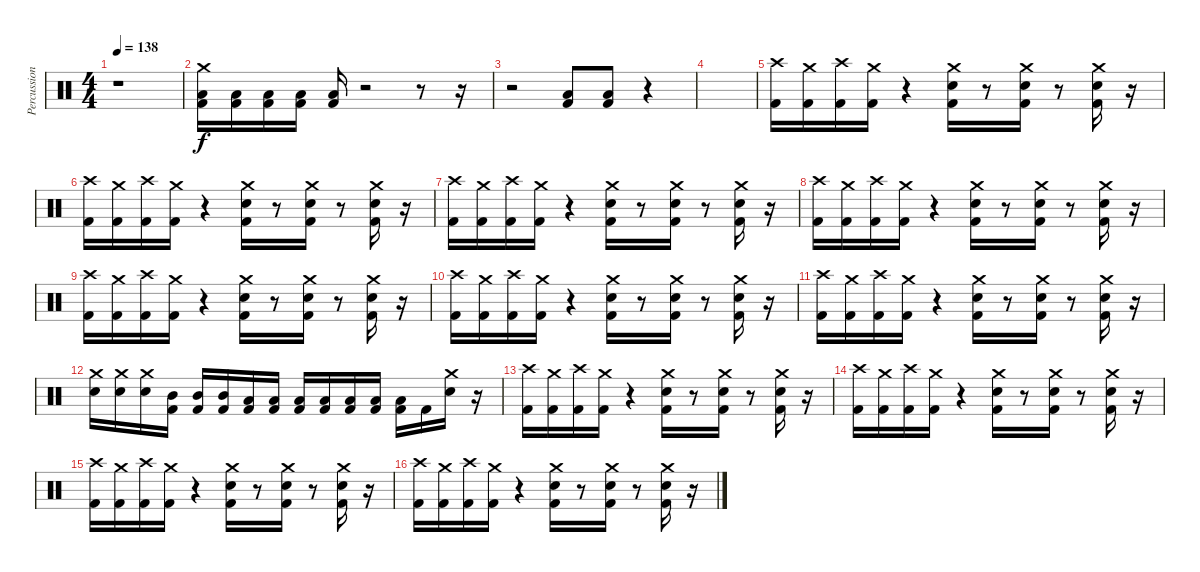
\track ("Percussion" "Percussion") {instrument percussion}
\staff {score}
\articulation defaults
\ts (4 4)
\tempo 138
\clef neutral
\ks c
r.1{dy f} |
("Crash medium (hit)" "Low Tom (hit)" "Kick (hit) 2").16 ("Low Tom (hit)" "Kick (hit) 2").16 ("Low Tom (hit)" "Kick (hit) 2").16 ("Low Tom (hit)" "Kick (hit) 2").16 ("Low Tom (hit)" "Kick (hit) 2").16 r.2 r.8 r.16 |
r.2 ("Low Tom (hit)" "Kick (hit) 2").8 ("Low Tom (hit)" "Kick (hit) 2").8 r.4 |
|
("Crash high (hit)" "Kick (hit) 2").16 ("Crash medium (hit)" "Kick (hit) 2").16 ("Crash high (hit)" "Kick (hit) 2").16 ("Crash medium (hit)" "Kick (hit) 2").16 r.4 ("Crash medium (hit)" "Electric Snare (hit)" "Kick (hit) 2").16 r.8 ("Crash medium (hit)" "Electric Snare (hit)" "Kick (hit) 2").16 r.8 ("Crash medium (hit)" "Electric Snare (hit)" "Kick (hit) 2").16 r.16 |
("Crash high (hit)" "Kick (hit) 2").16 ("Crash medium (hit)" "Kick (hit) 2").16 ("Crash high (hit)" "Kick (hit) 2").16 ("Crash medium (hit)" "Kick (hit) 2").16 r.4 ("Crash medium (hit)" "Electric Snare (hit)" "Kick (hit) 2").16 r.8 ("Crash medium (hit)" "Electric Snare (hit)" "Kick (hit) 2").16 r.8 ("Crash medium (hit)" "Electric Snare (hit)" "Kick (hit) 2").16 r.16 |
("Crash high (hit)" "Kick (hit) 2").16 ("Crash medium (hit)" "Kick (hit) 2").16 ("Crash high (hit)" "Kick (hit) 2").16 ("Crash medium (hit)" "Kick (hit) 2").16 r.4 ("Crash medium (hit)" "Electric Snare (hit)" "Kick (hit) 2").16 r.8 ("Crash medium (hit)" "Electric Snare (hit)" "Kick (hit) 2").16 r.8 ("Crash medium (hit)" "Electric Snare (hit)" "Kick (hit) 2").16 r.16 |
("Crash high (hit)" "Kick (hit) 2").16 ("Crash medium (hit)" "Kick (hit) 2").16 ("Crash high (hit)" "Kick (hit) 2").16 ("Crash medium (hit)" "Kick (hit) 2").16 r.4 ("Crash medium (hit)" "Electric Snare (hit)" "Kick (hit) 2").16 r.8 ("Crash medium (hit)" "Electric Snare (hit)" "Kick (hit) 2").16 r.8 ("Crash medium (hit)" "Electric Snare (hit)" "Kick (hit) 2").16 r.16 |
("Crash high (hit)" "Kick (hit) 2").16 ("Crash medium (hit)" "Kick (hit) 2").16 ("Crash high (hit)" "Kick (hit) 2").16 ("Crash medium (hit)" "Kick (hit) 2").16 r.4 ("Crash medium (hit)" "Electric Snare (hit)" "Kick (hit) 2").16 r.8 ("Crash medium (hit)" "Electric Snare (hit)" "Kick (hit) 2").16 r.8 ("Crash medium (hit)" "Electric Snare (hit)" "Kick (hit) 2").16 r.16 |
("Crash high (hit)" "Kick (hit) 2").16 ("Crash medium (hit)" "Kick (hit) 2").16 ("Crash high (hit)" "Kick (hit) 2").16 ("Crash medium (hit)" "Kick (hit) 2").16 r.4 ("Crash medium (hit)" "Electric Snare (hit)" "Kick (hit) 2").16 r.8 ("Crash medium (hit)" "Electric Snare (hit)" "Kick (hit) 2").16 r.8 ("Crash medium (hit)" "Electric Snare (hit)" "Kick (hit) 2").16 r.16 |
("Crash high (hit)" "Kick (hit) 2").16 ("Crash medium (hit)" "Kick (hit) 2").16 ("Crash high (hit)" "Kick (hit) 2").16 ("Crash medium (hit)" "Kick (hit) 2").16 r.4 ("Crash medium (hit)" "Electric Snare (hit)" "Kick (hit) 2").16 r.8 ("Crash medium (hit)" "Electric Snare (hit)" "Kick (hit) 2").16 r.8 ("Crash medium (hit)" "Electric Snare (hit)" "Kick (hit) 2").16 r.16 |
("Crash medium (hit)" "Electric Snare (hit)").16 ("Crash medium (hit)" "Electric Snare (hit)").16 ("Crash medium (hit)" "Electric Snare (hit)").16 ("Mid Tom (hit)" "Kick (hit) 2").16 ("Mid Tom (hit)" "Kick (hit) 2").16 ("Mid Tom (hit)" "Kick (hit) 2").16 ("Low Tom (hit)" "Kick (hit) 2").16 ("Low Tom (hit)" "Kick (hit) 2").16 ("Low Tom (hit)" "Kick (hit) 2").16 ("Low Tom (hit)" "Kick (hit) 2").16 ("Low Floor Tom (hit)" "Kick (hit) 2").16 ("Low Floor Tom (hit)" "Kick (hit) 2").16 ("Low Floor Tom (hit)" "Kick (hit) 2").16 "Kick (hit) 2".16 ("Crash medium (hit)" "Electric Snare (hit)").16 r.16 |
("Crash high (hit)" "Kick (hit) 2").16 ("Crash medium (hit)" "Kick (hit) 2").16 ("Crash high (hit)" "Kick (hit) 2").16 ("Crash medium (hit)" "Kick (hit) 2").16 r.4 ("Crash medium (hit)" "Electric Snare (hit)" "Kick (hit) 2").16 r.8 ("Crash medium (hit)" "Electric Snare (hit)" "Kick (hit) 2").16 r.8 ("Crash medium (hit)" "Electric Snare (hit)" "Kick (hit) 2").16 r.16 |
("Crash high (hit)" "Kick (hit) 2").16 ("Crash medium (hit)" "Kick (hit) 2").16 ("Crash high (hit)" "Kick (hit) 2").16 ("Crash medium (hit)" "Kick (hit) 2").16 r.4 ("Crash medium (hit)" "Electric Snare (hit)" "Kick (hit) 2").16 r.8 ("Crash medium (hit)" "Electric Snare (hit)" "Kick (hit) 2").16 r.8 ("Crash medium (hit)" "Electric Snare (hit)" "Kick (hit) 2").16 r.16 |
("Crash high (hit)" "Kick (hit) 2").16 ("Crash medium (hit)" "Kick (hit) 2").16 ("Crash high (hit)" "Kick (hit) 2").16 ("Crash medium (hit)" "Kick (hit) 2").16 r.4 ("Crash medium (hit)" "Electric Snare (hit)" "Kick (hit) 2").16 r.8 ("Crash medium (hit)" "Electric Snare (hit)" "Kick (hit) 2").16 r.8 ("Crash medium (hit)" "Electric Snare (hit)" "Kick (hit) 2").16 r.16 |
("Crash high (hit)" "Kick (hit) 2").16 ("Crash medium (hit)" "Kick (hit) 2").16 ("Crash high (hit)" "Kick (hit) 2").16 ("Crash medium (hit)" "Kick (hit) 2").16 r.4 ("Crash medium (hit)" "Electric Snare (hit)" "Kick (hit) 2").16 r.8 ("Crash medium (hit)" "Electric Snare (hit)" "Kick (hit) 2").16 r.8 ("Crash medium (hit)" "Electric Snare (hit)" "Kick (hit) 2").16 r.16
